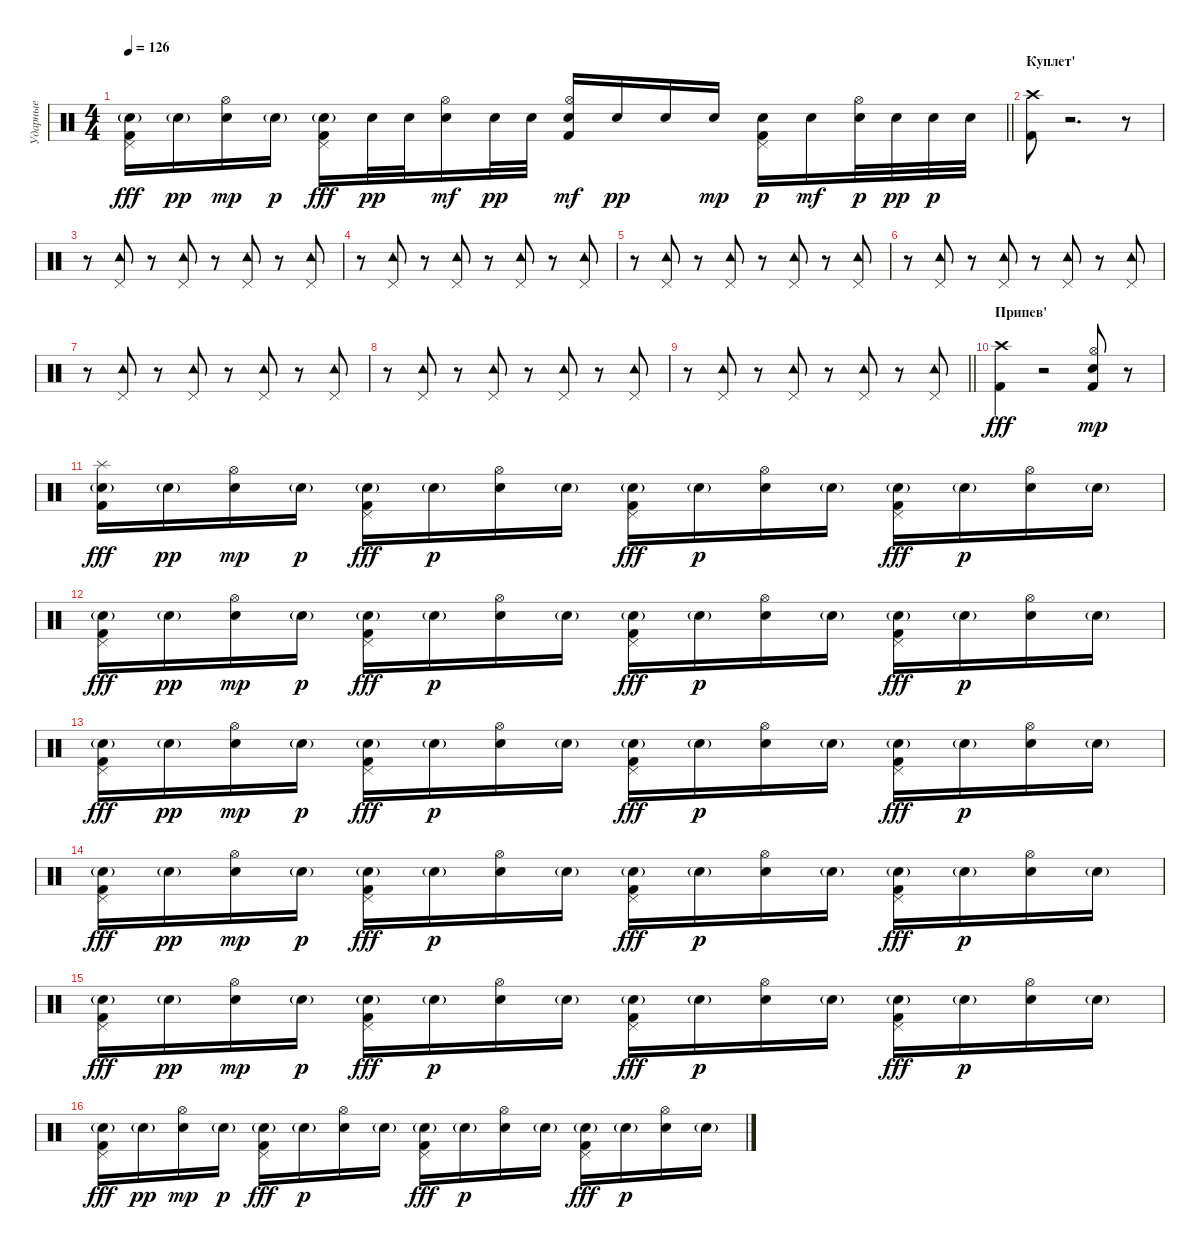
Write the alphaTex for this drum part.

\track ("Ударные" "Ударные") {instrument percussion}
\staff {score}
\articulation defaults
\ts (4 4)
\tempo 126
\clef neutral
\barLineRight lightlight
\ks c
("Pedal Hi-Hat (hit)" "Snare (hit) 2"{g} "Kick (hit) 2").16{dy fff} "Snare (hit) 2"{g}.16{dy pp} ("Hi-Hat (open)" "Electric Snare (hit)").16{dy mp} "Snare (hit) 2"{g}.16{dy p} ("Pedal Hi-Hat (hit)" "Snare (hit) 2"{g} "Kick (hit) 2").16{dy fff} "Electric Snare (hit)".32{dy pp} "Snare (hit) 2".32 ("Hi-Hat (open)" "Electric Snare (hit)").16{dy mf} "Electric Snare (hit)".32{dy pp} "Snare (hit) 2".32 ("Hi-Hat (open)" "Electric Snare (hit)" "Kick (hit) 2").16{dy mf} "Electric Snare (hit)".16{dy pp} "Electric Snare (hit)".16 "Electric Snare (hit)".16{dy mp} ("Pedal Hi-Hat (hit)" "Electric Snare (hit)" "Kick (hit) 2").16{dy p} "Electric Snare (hit)".16{dy mf} ("Hi-Hat (open)" "Electric Snare (hit)").32{dy p} "Electric Snare (hit)".32{dy pp} "Electric Snare (hit)".32{dy p} "Electric Snare (hit)".32 |
\section ("" "Куплет'")
("Crash high (hit)" "Kick (hit) 2").8 r.2{d} r.8 |
r.8 ("Pedal Hi-Hat (hit)" "Tambourine (hit)").8 r.8 ("Pedal Hi-Hat (hit)" "Tambourine (hit)").8 r.8 ("Pedal Hi-Hat (hit)" "Tambourine (hit)").8 r.8 ("Pedal Hi-Hat (hit)" "Tambourine (hit)").8 |
r.8 ("Pedal Hi-Hat (hit)" "Tambourine (hit)").8 r.8 ("Pedal Hi-Hat (hit)" "Tambourine (hit)").8 r.8 ("Pedal Hi-Hat (hit)" "Tambourine (hit)").8 r.8 ("Pedal Hi-Hat (hit)" "Tambourine (hit)").8 |
r.8 ("Pedal Hi-Hat (hit)" "Tambourine (hit)").8 r.8 ("Pedal Hi-Hat (hit)" "Tambourine (hit)").8 r.8 ("Pedal Hi-Hat (hit)" "Tambourine (hit)").8 r.8 ("Pedal Hi-Hat (hit)" "Tambourine (hit)").8 |
r.8 ("Pedal Hi-Hat (hit)" "Tambourine (hit)").8 r.8 ("Pedal Hi-Hat (hit)" "Tambourine (hit)").8 r.8 ("Pedal Hi-Hat (hit)" "Tambourine (hit)").8 r.8 ("Pedal Hi-Hat (hit)" "Tambourine (hit)").8 |
r.8 ("Pedal Hi-Hat (hit)" "Tambourine (hit)").8 r.8 ("Pedal Hi-Hat (hit)" "Tambourine (hit)").8 r.8 ("Pedal Hi-Hat (hit)" "Tambourine (hit)").8 r.8 ("Pedal Hi-Hat (hit)" "Tambourine (hit)").8 |
r.8 ("Pedal Hi-Hat (hit)" "Tambourine (hit)").8 r.8 ("Pedal Hi-Hat (hit)" "Tambourine (hit)").8 r.8 ("Pedal Hi-Hat (hit)" "Tambourine (hit)").8 r.8 ("Pedal Hi-Hat (hit)" "Tambourine (hit)").8 |
\barLineRight lightlight
r.8 ("Pedal Hi-Hat (hit)" "Tambourine (hit)").8 r.8 ("Pedal Hi-Hat (hit)" "Tambourine (hit)").8 r.8 ("Pedal Hi-Hat (hit)" "Tambourine (hit)").8 r.8 ("Pedal Hi-Hat (hit)" "Tambourine (hit)").8 |
\section ("" "Припев'")
("Crash high (hit)" "Kick (hit) 2").4{dy fff} r.2 ("Hi-Hat (open)" "Electric Snare (hit)" "Kick (hit) 2").8{dy mp} r.8 |
("Splash (hit)" "Snare (hit) 2"{g} "Kick (hit) 2").16{dy fff} "Snare (hit) 2"{g}.16{dy pp} ("Hi-Hat (open)" "Electric Snare (hit)").16{dy mp} "Snare (hit) 2"{g}.16{dy p} ("Pedal Hi-Hat (hit)" "Snare (hit) 2"{g} "Kick (hit) 2").16{dy fff} "Snare (hit) 2"{g}.16{dy p} ("Hi-Hat (open)" "Electric Snare (hit)").16 "Snare (hit) 2"{g}.16 ("Pedal Hi-Hat (hit)" "Snare (hit) 2"{g} "Kick (hit) 2").16{dy fff} "Snare (hit) 2"{g}.16{dy p} ("Hi-Hat (open)" "Electric Snare (hit)").16 "Snare (hit) 2"{g}.16 ("Pedal Hi-Hat (hit)" "Snare (hit) 2"{g} "Kick (hit) 2").16{dy fff} "Snare (hit) 2"{g}.16{dy p} ("Hi-Hat (open)" "Electric Snare (hit)").16 "Snare (hit) 2"{g}.16 |
("Pedal Hi-Hat (hit)" "Snare (hit) 2"{g} "Kick (hit) 2").16{dy fff} "Snare (hit) 2"{g}.16{dy pp} ("Hi-Hat (open)" "Electric Snare (hit)").16{dy mp} "Snare (hit) 2"{g}.16{dy p} ("Pedal Hi-Hat (hit)" "Snare (hit) 2"{g} "Kick (hit) 2").16{dy fff} "Snare (hit) 2"{g}.16{dy p} ("Hi-Hat (open)" "Electric Snare (hit)").16 "Snare (hit) 2"{g}.16 ("Pedal Hi-Hat (hit)" "Snare (hit) 2"{g} "Kick (hit) 2").16{dy fff} "Snare (hit) 2"{g}.16{dy p} ("Hi-Hat (open)" "Electric Snare (hit)").16 "Snare (hit) 2"{g}.16 ("Pedal Hi-Hat (hit)" "Snare (hit) 2"{g} "Kick (hit) 2").16{dy fff} "Snare (hit) 2"{g}.16{dy p} ("Hi-Hat (open)" "Electric Snare (hit)").16 "Snare (hit) 2"{g}.16 |
("Pedal Hi-Hat (hit)" "Snare (hit) 2"{g} "Kick (hit) 2").16{dy fff} "Snare (hit) 2"{g}.16{dy pp} ("Hi-Hat (open)" "Electric Snare (hit)").16{dy mp} "Snare (hit) 2"{g}.16{dy p} ("Pedal Hi-Hat (hit)" "Snare (hit) 2"{g} "Kick (hit) 2").16{dy fff} "Snare (hit) 2"{g}.16{dy p} ("Hi-Hat (open)" "Electric Snare (hit)").16 "Snare (hit) 2"{g}.16 ("Pedal Hi-Hat (hit)" "Snare (hit) 2"{g} "Kick (hit) 2").16{dy fff} "Snare (hit) 2"{g}.16{dy p} ("Hi-Hat (open)" "Electric Snare (hit)").16 "Snare (hit) 2"{g}.16 ("Pedal Hi-Hat (hit)" "Snare (hit) 2"{g} "Kick (hit) 2").16{dy fff} "Snare (hit) 2"{g}.16{dy p} ("Hi-Hat (open)" "Electric Snare (hit)").16 "Snare (hit) 2"{g}.16 |
("Pedal Hi-Hat (hit)" "Snare (hit) 2"{g} "Kick (hit) 2").16{dy fff} "Snare (hit) 2"{g}.16{dy pp} ("Hi-Hat (open)" "Electric Snare (hit)").16{dy mp} "Snare (hit) 2"{g}.16{dy p} ("Pedal Hi-Hat (hit)" "Snare (hit) 2"{g} "Kick (hit) 2").16{dy fff} "Snare (hit) 2"{g}.16{dy p} ("Hi-Hat (open)" "Electric Snare (hit)").16 "Snare (hit) 2"{g}.16 ("Pedal Hi-Hat (hit)" "Snare (hit) 2"{g} "Kick (hit) 2").16{dy fff} "Snare (hit) 2"{g}.16{dy p} ("Hi-Hat (open)" "Electric Snare (hit)").16 "Snare (hit) 2"{g}.16 ("Pedal Hi-Hat (hit)" "Snare (hit) 2"{g} "Kick (hit) 2").16{dy fff} "Snare (hit) 2"{g}.16{dy p} ("Hi-Hat (open)" "Electric Snare (hit)").16 "Snare (hit) 2"{g}.16 |
("Pedal Hi-Hat (hit)" "Snare (hit) 2"{g} "Kick (hit) 2").16{dy fff} "Snare (hit) 2"{g}.16{dy pp} ("Hi-Hat (open)" "Electric Snare (hit)").16{dy mp} "Snare (hit) 2"{g}.16{dy p} ("Pedal Hi-Hat (hit)" "Snare (hit) 2"{g} "Kick (hit) 2").16{dy fff} "Snare (hit) 2"{g}.16{dy p} ("Hi-Hat (open)" "Electric Snare (hit)").16 "Snare (hit) 2"{g}.16 ("Pedal Hi-Hat (hit)" "Snare (hit) 2"{g} "Kick (hit) 2").16{dy fff} "Snare (hit) 2"{g}.16{dy p} ("Hi-Hat (open)" "Electric Snare (hit)").16 "Snare (hit) 2"{g}.16 ("Pedal Hi-Hat (hit)" "Snare (hit) 2"{g} "Kick (hit) 2").16{dy fff} "Snare (hit) 2"{g}.16{dy p} ("Hi-Hat (open)" "Electric Snare (hit)").16 "Snare (hit) 2"{g}.16 |
("Pedal Hi-Hat (hit)" "Snare (hit) 2"{g} "Kick (hit) 2").16{dy fff} "Snare (hit) 2"{g}.16{dy pp} ("Hi-Hat (open)" "Electric Snare (hit)").16{dy mp} "Snare (hit) 2"{g}.16{dy p} ("Pedal Hi-Hat (hit)" "Snare (hit) 2"{g} "Kick (hit) 2").16{dy fff} "Snare (hit) 2"{g}.16{dy p} ("Hi-Hat (open)" "Electric Snare (hit)").16 "Snare (hit) 2"{g}.16 ("Pedal Hi-Hat (hit)" "Snare (hit) 2"{g} "Kick (hit) 2").16{dy fff} "Snare (hit) 2"{g}.16{dy p} ("Hi-Hat (open)" "Electric Snare (hit)").16 "Snare (hit) 2"{g}.16 ("Pedal Hi-Hat (hit)" "Snare (hit) 2"{g} "Kick (hit) 2").16{dy fff} "Snare (hit) 2"{g}.16{dy p} ("Hi-Hat (open)" "Electric Snare (hit)").16 "Snare (hit) 2"{g}.16
